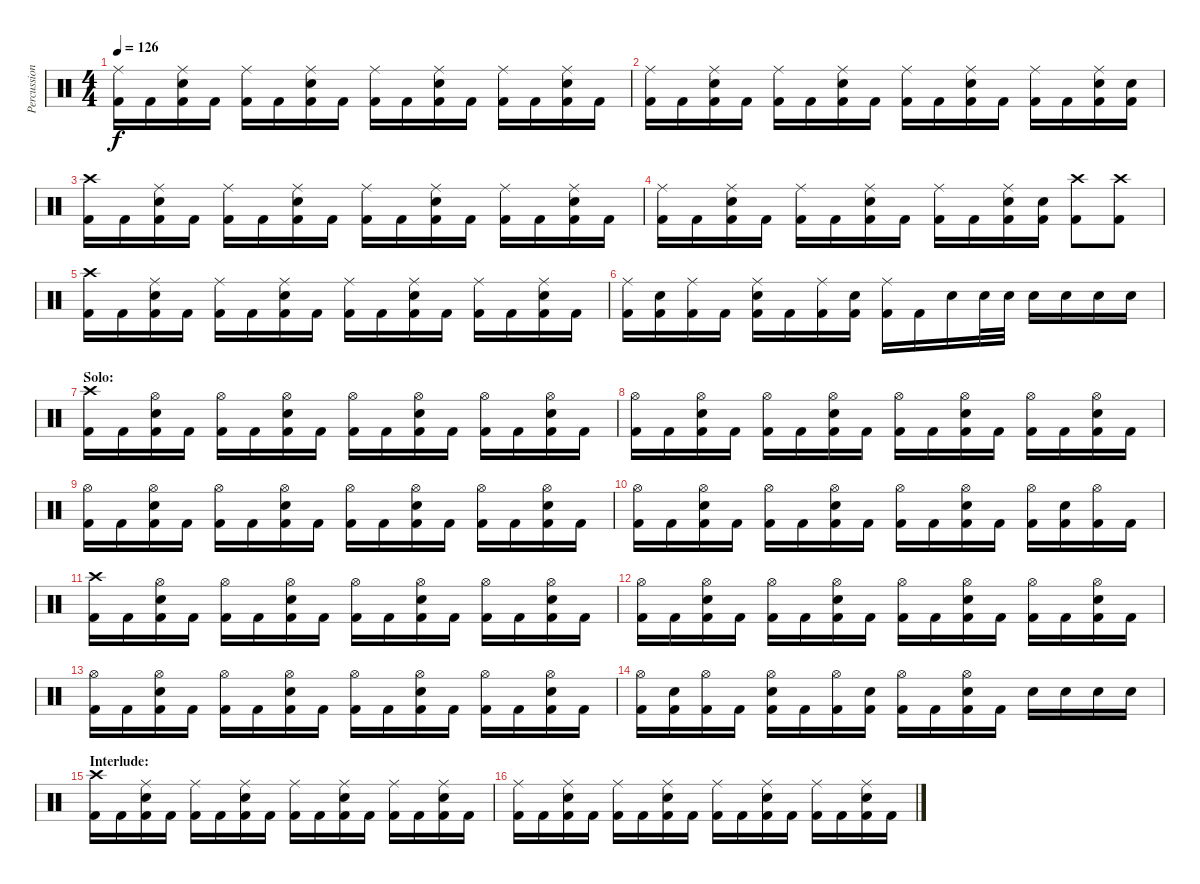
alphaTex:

\track ("Percussion" "Percussion") {instrument percussion}
\staff {score}
\articulation defaults
\ts (4 4)
\tempo 126
\clef neutral
\ks c
("Ride (middle)" "Kick (hit) 2").16{dy f} "Kick (hit) 2".16 ("Ride (middle)" "Electric Snare (hit)" "Kick (hit) 2").16 "Kick (hit) 2".16 ("Ride (middle)" "Kick (hit) 2").16 "Kick (hit) 2".16 ("Ride (middle)" "Electric Snare (hit)" "Kick (hit) 2").16 "Kick (hit) 2".16 ("Ride (middle)" "Kick (hit) 2").16 "Kick (hit) 2".16 ("Ride (middle)" "Electric Snare (hit)" "Kick (hit) 2").16 "Kick (hit) 2".16 ("Ride (middle)" "Kick (hit) 2").16 "Kick (hit) 2".16 ("Ride (middle)" "Electric Snare (hit)" "Kick (hit) 2").16 "Kick (hit) 2".16 |
("Ride (middle)" "Kick (hit) 2").16 "Kick (hit) 2".16 ("Ride (middle)" "Electric Snare (hit)" "Kick (hit) 2").16 "Kick (hit) 2".16 ("Ride (middle)" "Kick (hit) 2").16 "Kick (hit) 2".16 ("Ride (middle)" "Electric Snare (hit)" "Kick (hit) 2").16 "Kick (hit) 2".16 ("Ride (middle)" "Kick (hit) 2").16 "Kick (hit) 2".16 ("Ride (middle)" "Electric Snare (hit)" "Kick (hit) 2").16 "Kick (hit) 2".16 ("Ride (middle)" "Kick (hit) 2").16 "Kick (hit) 2".16 ("Ride (middle)" "Electric Snare (hit)" "Kick (hit) 2").16 ("Electric Snare (hit)" "Kick (hit) 2").16 |
("Crash high (hit)" "Kick (hit) 2").16 "Kick (hit) 2".16 ("Ride (middle)" "Electric Snare (hit)" "Kick (hit) 2").16 "Kick (hit) 2".16 ("Ride (middle)" "Kick (hit) 2").16 "Kick (hit) 2".16 ("Ride (middle)" "Electric Snare (hit)" "Kick (hit) 2").16 "Kick (hit) 2".16 ("Ride (middle)" "Kick (hit) 2").16 "Kick (hit) 2".16 ("Ride (middle)" "Electric Snare (hit)" "Kick (hit) 2").16 "Kick (hit) 2".16 ("Ride (middle)" "Kick (hit) 2").16 "Kick (hit) 2".16 ("Ride (middle)" "Electric Snare (hit)" "Kick (hit) 2").16 "Kick (hit) 2".16 |
("Ride (middle)" "Kick (hit) 2").16 "Kick (hit) 2".16 ("Ride (middle)" "Electric Snare (hit)" "Kick (hit) 2").16 "Kick (hit) 2".16 ("Ride (middle)" "Kick (hit) 2").16 "Kick (hit) 2".16 ("Ride (middle)" "Electric Snare (hit)" "Kick (hit) 2").16 "Kick (hit) 2".16 ("Ride (middle)" "Kick (hit) 2").16 "Kick (hit) 2".16 ("Ride (middle)" "Electric Snare (hit)" "Kick (hit) 2").16 ("Electric Snare (hit)" "Kick (hit) 2").16 ("Crash high (hit)" "Kick (hit) 2").8 ("Crash high (hit)" "Kick (hit) 2").8 |
("Crash high (hit)" "Kick (hit) 2").16 "Kick (hit) 2".16 ("Ride (middle)" "Electric Snare (hit)" "Kick (hit) 2").16 "Kick (hit) 2".16 ("Ride (middle)" "Kick (hit) 2").16 "Kick (hit) 2".16 ("Ride (middle)" "Electric Snare (hit)" "Kick (hit) 2").16 "Kick (hit) 2".16 ("Ride (middle)" "Kick (hit) 2").16 "Kick (hit) 2".16 ("Ride (middle)" "Electric Snare (hit)" "Kick (hit) 2").16 "Kick (hit) 2".16 ("Ride (middle)" "Kick (hit) 2").16 "Kick (hit) 2".16 ("Ride (middle)" "Electric Snare (hit)" "Kick (hit) 2").16 "Kick (hit) 2".16 |
("Ride (middle)" "Kick (hit) 2").16 ("Electric Snare (hit)" "Kick (hit) 2").16 ("Ride (middle)" "Kick (hit) 2").16 "Kick (hit) 2".16 ("Ride (middle)" "Electric Snare (hit)" "Kick (hit) 2").16 "Kick (hit) 2".16 ("Ride (middle)" "Kick (hit) 2").16 ("Electric Snare (hit)" "Kick (hit) 2").16 ("Ride (middle)" "Kick (hit) 2").16 "Kick (hit) 2".16 "Electric Snare (hit)".16 "Electric Snare (hit)".32 "Electric Snare (hit)".32 "Electric Snare (hit)".16 "Electric Snare (hit)".16 "Electric Snare (hit)".16 "Electric Snare (hit)".16 |
\section ("" "Solo:")
("Crash high (hit)" "Kick (hit) 2").16 "Kick (hit) 2".16 ("Hi-Hat (open)" "Electric Snare (hit)" "Kick (hit) 2").16 "Kick (hit) 2".16 ("Hi-Hat (open)" "Kick (hit) 2").16 "Kick (hit) 2".16 ("Hi-Hat (open)" "Electric Snare (hit)" "Kick (hit) 2").16 "Kick (hit) 2".16 ("Hi-Hat (open)" "Kick (hit) 2").16 "Kick (hit) 2".16 ("Hi-Hat (open)" "Electric Snare (hit)" "Kick (hit) 2").16 "Kick (hit) 2".16 ("Hi-Hat (open)" "Kick (hit) 2").16 "Kick (hit) 2".16 ("Hi-Hat (open)" "Electric Snare (hit)" "Kick (hit) 2").16 "Kick (hit) 2".16 |
("Hi-Hat (open)" "Kick (hit) 2").16 "Kick (hit) 2".16 ("Hi-Hat (open)" "Electric Snare (hit)" "Kick (hit) 2").16 "Kick (hit) 2".16 ("Hi-Hat (open)" "Kick (hit) 2").16 "Kick (hit) 2".16 ("Hi-Hat (open)" "Electric Snare (hit)" "Kick (hit) 2").16 "Kick (hit) 2".16 ("Hi-Hat (open)" "Kick (hit) 2").16 "Kick (hit) 2".16 ("Hi-Hat (open)" "Electric Snare (hit)" "Kick (hit) 2").16 "Kick (hit) 2".16 ("Hi-Hat (open)" "Kick (hit) 2").16 "Kick (hit) 2".16 ("Hi-Hat (open)" "Electric Snare (hit)" "Kick (hit) 2").16 "Kick (hit) 2".16 |
("Hi-Hat (open)" "Kick (hit) 2").16 "Kick (hit) 2".16 ("Hi-Hat (open)" "Electric Snare (hit)" "Kick (hit) 2").16 "Kick (hit) 2".16 ("Hi-Hat (open)" "Kick (hit) 2").16 "Kick (hit) 2".16 ("Hi-Hat (open)" "Electric Snare (hit)" "Kick (hit) 2").16 "Kick (hit) 2".16 ("Hi-Hat (open)" "Kick (hit) 2").16 "Kick (hit) 2".16 ("Hi-Hat (open)" "Electric Snare (hit)" "Kick (hit) 2").16 "Kick (hit) 2".16 ("Hi-Hat (open)" "Kick (hit) 2").16 "Kick (hit) 2".16 ("Hi-Hat (open)" "Electric Snare (hit)" "Kick (hit) 2").16 "Kick (hit) 2".16 |
("Hi-Hat (open)" "Kick (hit) 2").16 "Kick (hit) 2".16 ("Hi-Hat (open)" "Electric Snare (hit)" "Kick (hit) 2").16 "Kick (hit) 2".16 ("Hi-Hat (open)" "Kick (hit) 2").16 "Kick (hit) 2".16 ("Hi-Hat (open)" "Electric Snare (hit)" "Kick (hit) 2").16 "Kick (hit) 2".16 ("Hi-Hat (open)" "Kick (hit) 2").16 "Kick (hit) 2".16 ("Hi-Hat (open)" "Electric Snare (hit)" "Kick (hit) 2").16 "Kick (hit) 2".16 ("Hi-Hat (open)" "Kick (hit) 2").16 ("Electric Snare (hit)" "Kick (hit) 2").16 ("Hi-Hat (open)" "Kick (hit) 2").16 "Kick (hit) 2".16 |
("Crash high (hit)" "Kick (hit) 2").16 "Kick (hit) 2".16 ("Hi-Hat (open)" "Electric Snare (hit)" "Kick (hit) 2").16 "Kick (hit) 2".16 ("Hi-Hat (open)" "Kick (hit) 2").16 "Kick (hit) 2".16 ("Hi-Hat (open)" "Electric Snare (hit)" "Kick (hit) 2").16 "Kick (hit) 2".16 ("Hi-Hat (open)" "Kick (hit) 2").16 "Kick (hit) 2".16 ("Hi-Hat (open)" "Electric Snare (hit)" "Kick (hit) 2").16 "Kick (hit) 2".16 ("Hi-Hat (open)" "Kick (hit) 2").16 "Kick (hit) 2".16 ("Hi-Hat (open)" "Electric Snare (hit)" "Kick (hit) 2").16 "Kick (hit) 2".16 |
("Hi-Hat (open)" "Kick (hit) 2").16 "Kick (hit) 2".16 ("Hi-Hat (open)" "Electric Snare (hit)" "Kick (hit) 2").16 "Kick (hit) 2".16 ("Hi-Hat (open)" "Kick (hit) 2").16 "Kick (hit) 2".16 ("Hi-Hat (open)" "Electric Snare (hit)" "Kick (hit) 2").16 "Kick (hit) 2".16 ("Hi-Hat (open)" "Kick (hit) 2").16 "Kick (hit) 2".16 ("Hi-Hat (open)" "Electric Snare (hit)" "Kick (hit) 2").16 "Kick (hit) 2".16 ("Hi-Hat (open)" "Kick (hit) 2").16 "Kick (hit) 2".16 ("Hi-Hat (open)" "Electric Snare (hit)" "Kick (hit) 2").16 "Kick (hit) 2".16 |
("Hi-Hat (open)" "Kick (hit) 2").16 "Kick (hit) 2".16 ("Hi-Hat (open)" "Electric Snare (hit)" "Kick (hit) 2").16 "Kick (hit) 2".16 ("Hi-Hat (open)" "Kick (hit) 2").16 "Kick (hit) 2".16 ("Hi-Hat (open)" "Electric Snare (hit)" "Kick (hit) 2").16 "Kick (hit) 2".16 ("Hi-Hat (open)" "Kick (hit) 2").16 "Kick (hit) 2".16 ("Hi-Hat (open)" "Electric Snare (hit)" "Kick (hit) 2").16 "Kick (hit) 2".16 ("Hi-Hat (open)" "Kick (hit) 2").16 "Kick (hit) 2".16 ("Hi-Hat (open)" "Electric Snare (hit)" "Kick (hit) 2").16 "Kick (hit) 2".16 |
("Hi-Hat (open)" "Kick (hit) 2").16 ("Electric Snare (hit)" "Kick (hit) 2").16 ("Hi-Hat (open)" "Kick (hit) 2").16 "Kick (hit) 2".16 ("Hi-Hat (open)" "Electric Snare (hit)" "Kick (hit) 2").16 "Kick (hit) 2".16 ("Hi-Hat (open)" "Kick (hit) 2").16 ("Electric Snare (hit)" "Kick (hit) 2").16 ("Hi-Hat (open)" "Kick (hit) 2").16 "Kick (hit) 2".16 ("Hi-Hat (open)" "Electric Snare (hit)" "Kick (hit) 2").16 "Kick (hit) 2".16 "Electric Snare (hit)".16 "Electric Snare (hit)".16 "Electric Snare (hit)".16 "Electric Snare (hit)".16 |
\section ("" "Interlude:")
("Crash high (hit)" "Kick (hit) 2").16 "Kick (hit) 2".16 ("Ride (middle)" "Electric Snare (hit)" "Kick (hit) 2").16 "Kick (hit) 2".16 ("Ride (middle)" "Kick (hit) 2").16 "Kick (hit) 2".16 ("Ride (middle)" "Electric Snare (hit)" "Kick (hit) 2").16 "Kick (hit) 2".16 ("Ride (middle)" "Kick (hit) 2").16 "Kick (hit) 2".16 ("Ride (middle)" "Electric Snare (hit)" "Kick (hit) 2").16 "Kick (hit) 2".16 ("Ride (middle)" "Kick (hit) 2").16 "Kick (hit) 2".16 ("Ride (middle)" "Electric Snare (hit)" "Kick (hit) 2").16 "Kick (hit) 2".16 |
("Ride (middle)" "Kick (hit) 2").16 "Kick (hit) 2".16 ("Ride (middle)" "Electric Snare (hit)" "Kick (hit) 2").16 "Kick (hit) 2".16 ("Ride (middle)" "Kick (hit) 2").16 "Kick (hit) 2".16 ("Ride (middle)" "Electric Snare (hit)" "Kick (hit) 2").16 "Kick (hit) 2".16 ("Ride (middle)" "Kick (hit) 2").16 "Kick (hit) 2".16 ("Ride (middle)" "Electric Snare (hit)" "Kick (hit) 2").16 "Kick (hit) 2".16 ("Ride (middle)" "Kick (hit) 2").16 "Kick (hit) 2".16 ("Ride (middle)" "Electric Snare (hit)" "Kick (hit) 2").16 "Kick (hit) 2".16
